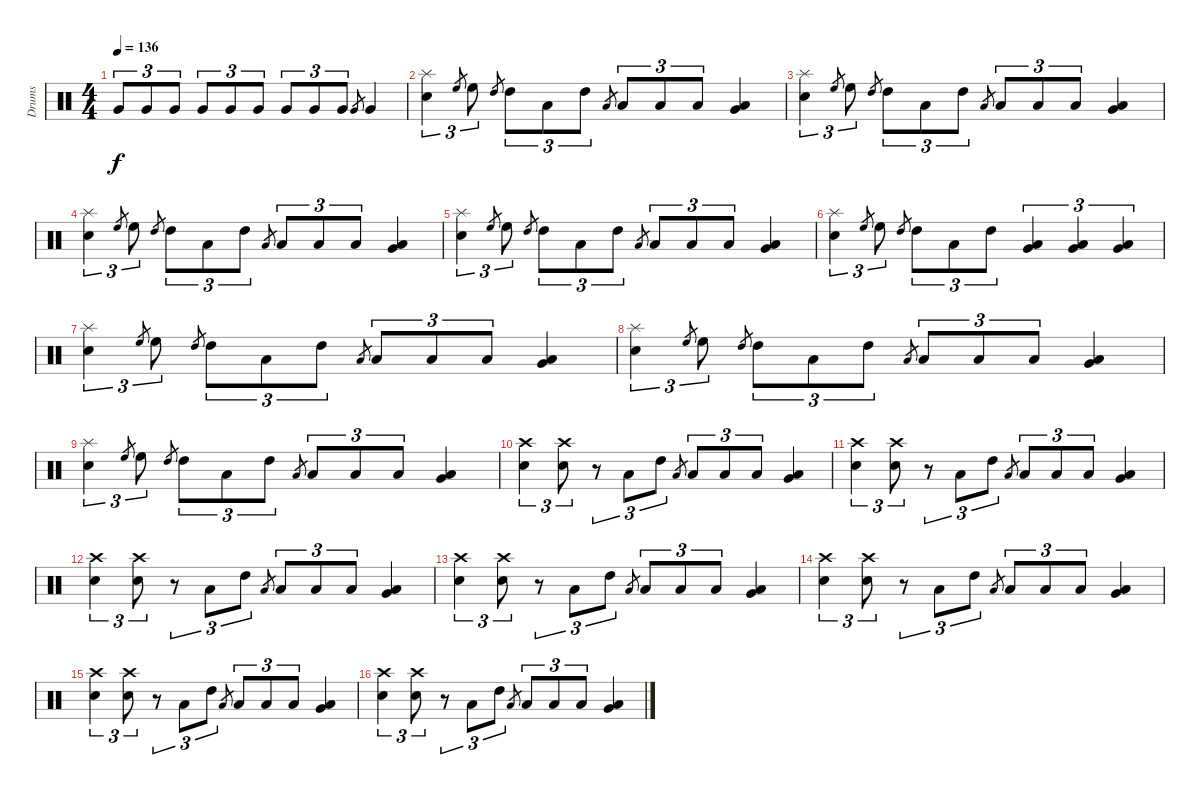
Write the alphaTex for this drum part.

\track ("Drums" "Drums") {instrument percussion}
\staff {score}
\articulation defaults
\ts (4 4)
\tempo 136
\clef neutral
\ks c "Very Low Tom (hit)".8{tu (3 2) dy f volume 16} "Very Low Tom (hit)".8{tu (3 2)} "Very Low Tom (hit)".8{tu (3 2)} "Very Low Tom (hit)".8{tu (3 2)} "Very Low Tom (hit)".8{tu (3 2)} "Very Low Tom (hit)".8{tu (3 2)} "Very Low Tom (hit)".8{tu (3 2)} "Very Low Tom (hit)".8{tu (3 2)} "Very Low Tom (hit)".8{tu (3 2)} "Very Low Tom (hit)".8{gr} "Very Low Tom (hit)".4
|
("Splash (hit)" "Snare (hit) 2").4{tu (3 2)} "High Floor Tom (hit)".8{gr} "High Floor Tom (hit)".8{tu (3 2)} "High Tom (hit)".8{gr} "High Tom (hit)".8{tu (3 2)} "Low Tom (hit)".8{tu (3 2)} "High Tom (hit)".8{tu (3 2)} "Low Tom (hit)".8{gr} "Low Tom (hit)".8{tu (3 2)} "Low Tom (hit)".8{tu (3 2)} "Low Tom (hit)".8{tu (3 2)} ("Low Tom (hit)" "Very Low Tom (hit)").4 |
("Splash (hit)" "Snare (hit) 2").4{tu (3 2)} "High Floor Tom (hit)".8{gr} "High Floor Tom (hit)".8{tu (3 2)} "High Tom (hit)".8{gr} "High Tom (hit)".8{tu (3 2)} "Low Tom (hit)".8{tu (3 2)} "High Tom (hit)".8{tu (3 2)} "Low Tom (hit)".8{gr} "Low Tom (hit)".8{tu (3 2)} "Low Tom (hit)".8{tu (3 2)} "Low Tom (hit)".8{tu (3 2)} ("Low Tom (hit)" "Very Low Tom (hit)").4 |
("Splash (hit)" "Snare (hit) 2").4{tu (3 2)} "High Floor Tom (hit)".8{gr} "High Floor Tom (hit)".8{tu (3 2)} "High Tom (hit)".8{gr} "High Tom (hit)".8{tu (3 2)} "Low Tom (hit)".8{tu (3 2)} "High Tom (hit)".8{tu (3 2)} "Low Tom (hit)".8{gr} "Low Tom (hit)".8{tu (3 2)} "Low Tom (hit)".8{tu (3 2)} "Low Tom (hit)".8{tu (3 2)} ("Low Tom (hit)" "Very Low Tom (hit)").4 |
("Splash (hit)" "Snare (hit) 2").4{tu (3 2)} "High Floor Tom (hit)".8{gr} "High Floor Tom (hit)".8{tu (3 2)} "High Tom (hit)".8{gr} "High Tom (hit)".8{tu (3 2)} "Low Tom (hit)".8{tu (3 2)} "High Tom (hit)".8{tu (3 2)} "Low Tom (hit)".8{gr} "Low Tom (hit)".8{tu (3 2)} "Low Tom (hit)".8{tu (3 2)} "Low Tom (hit)".8{tu (3 2)} ("Low Tom (hit)" "Very Low Tom (hit)").4 |
("Splash (hit)" "Snare (hit) 2").4{tu (3 2)} "High Floor Tom (hit)".8{gr} "High Floor Tom (hit)".8{tu (3 2)} "High Tom (hit)".8{gr} "High Tom (hit)".8{tu (3 2)} "Low Tom (hit)".8{tu (3 2)} "High Tom (hit)".8{tu (3 2)} ("Low Tom (hit)" "Very Low Tom (hit)").4{tu (3 2)} ("Low Tom (hit)" "Very Low Tom (hit)").4{tu (3 2)} ("Low Tom (hit)" "Very Low Tom (hit)").4{tu (3 2)} |
("Splash (hit)" "Snare (hit) 2").4{tu (3 2)} "High Floor Tom (hit)".8{gr} "High Floor Tom (hit)".8{tu (3 2)} "High Tom (hit)".8{gr} "High Tom (hit)".8{tu (3 2)} "Low Tom (hit)".8{tu (3 2)} "High Tom (hit)".8{tu (3 2)} "Low Tom (hit)".8{gr} "Low Tom (hit)".8{tu (3 2)} "Low Tom (hit)".8{tu (3 2)} "Low Tom (hit)".8{tu (3 2)} ("Low Tom (hit)" "Very Low Tom (hit)").4 |
("Splash (hit)" "Snare (hit) 2").4{tu (3 2)} "High Floor Tom (hit)".8{gr} "High Floor Tom (hit)".8{tu (3 2)} "High Tom (hit)".8{gr} "High Tom (hit)".8{tu (3 2)} "Low Tom (hit)".8{tu (3 2)} "High Tom (hit)".8{tu (3 2)} "Low Tom (hit)".8{gr} "Low Tom (hit)".8{tu (3 2)} "Low Tom (hit)".8{tu (3 2)} "Low Tom (hit)".8{tu (3 2)} ("Low Tom (hit)" "Very Low Tom (hit)").4 |
("Splash (hit)" "Snare (hit) 2").4{tu (3 2)} "High Floor Tom (hit)".8{gr} "High Floor Tom (hit)".8{tu (3 2)} "High Tom (hit)".8{gr} "High Tom (hit)".8{tu (3 2)} "Low Tom (hit)".8{tu (3 2)} "High Tom (hit)".8{tu (3 2)} "Low Tom (hit)".8{gr} "Low Tom (hit)".8{tu (3 2)} "Low Tom (hit)".8{tu (3 2)} "Low Tom (hit)".8{tu (3 2)} ("Low Tom (hit)" "Very Low Tom (hit)").4 |
("Crash high (hit)" "Snare (hit) 2").4{tu (3 2)} ("Crash high (hit)" "Snare (hit) 2").8{tu (3 2)} r.8{tu (3 2)} "Low Tom (hit)".8{tu (3 2)} "High Tom (hit)".8{tu (3 2)} "Low Tom (hit)".8{gr} "Low Tom (hit)".8{tu (3 2)} "Low Tom (hit)".8{tu (3 2)} "Low Tom (hit)".8{tu (3 2)} ("Low Tom (hit)" "Very Low Tom (hit)").4 |
("Crash high (hit)" "Snare (hit) 2").4{tu (3 2)} ("Crash high (hit)" "Snare (hit) 2").8{tu (3 2)} r.8{tu (3 2)} "Low Tom (hit)".8{tu (3 2)} "High Tom (hit)".8{tu (3 2)} "Low Tom (hit)".8{gr} "Low Tom (hit)".8{tu (3 2)} "Low Tom (hit)".8{tu (3 2)} "Low Tom (hit)".8{tu (3 2)} ("Low Tom (hit)" "Very Low Tom (hit)").4 |
("Crash high (hit)" "Snare (hit) 2").4{tu (3 2)} ("Crash high (hit)" "Snare (hit) 2").8{tu (3 2)} r.8{tu (3 2)} "Low Tom (hit)".8{tu (3 2)} "High Tom (hit)".8{tu (3 2)} "Low Tom (hit)".8{gr} "Low Tom (hit)".8{tu (3 2)} "Low Tom (hit)".8{tu (3 2)} "Low Tom (hit)".8{tu (3 2)} ("Low Tom (hit)" "Very Low Tom (hit)").4 |
("Crash high (hit)" "Snare (hit) 2").4{tu (3 2)} ("Crash high (hit)" "Snare (hit) 2").8{tu (3 2)} r.8{tu (3 2)} "Low Tom (hit)".8{tu (3 2)} "High Tom (hit)".8{tu (3 2)} "Low Tom (hit)".8{gr} "Low Tom (hit)".8{tu (3 2)} "Low Tom (hit)".8{tu (3 2)} "Low Tom (hit)".8{tu (3 2)} ("Low Tom (hit)" "Very Low Tom (hit)").4 |
("Crash high (hit)" "Snare (hit) 2").4{tu (3 2)} ("Crash high (hit)" "Snare (hit) 2").8{tu (3 2)} r.8{tu (3 2)} "Low Tom (hit)".8{tu (3 2)} "High Tom (hit)".8{tu (3 2)} "Low Tom (hit)".8{gr} "Low Tom (hit)".8{tu (3 2)} "Low Tom (hit)".8{tu (3 2)} "Low Tom (hit)".8{tu (3 2)} ("Low Tom (hit)" "Very Low Tom (hit)").4 |
("Crash high (hit)" "Snare (hit) 2").4{tu (3 2)} ("Crash high (hit)" "Snare (hit) 2").8{tu (3 2)} r.8{tu (3 2)} "Low Tom (hit)".8{tu (3 2)} "High Tom (hit)".8{tu (3 2)} "Low Tom (hit)".8{gr} "Low Tom (hit)".8{tu (3 2)} "Low Tom (hit)".8{tu (3 2)} "Low Tom (hit)".8{tu (3 2)} ("Low Tom (hit)" "Very Low Tom (hit)").4 |
("Crash high (hit)" "Snare (hit) 2").4{tu (3 2)} ("Crash high (hit)" "Snare (hit) 2").8{tu (3 2)} r.8{tu (3 2)} "Low Tom (hit)".8{tu (3 2)} "High Tom (hit)".8{tu (3 2)} "Low Tom (hit)".8{gr} "Low Tom (hit)".8{tu (3 2)} "Low Tom (hit)".8{tu (3 2)} "Low Tom (hit)".8{tu (3 2)} ("Low Tom (hit)" "Very Low Tom (hit)").4
